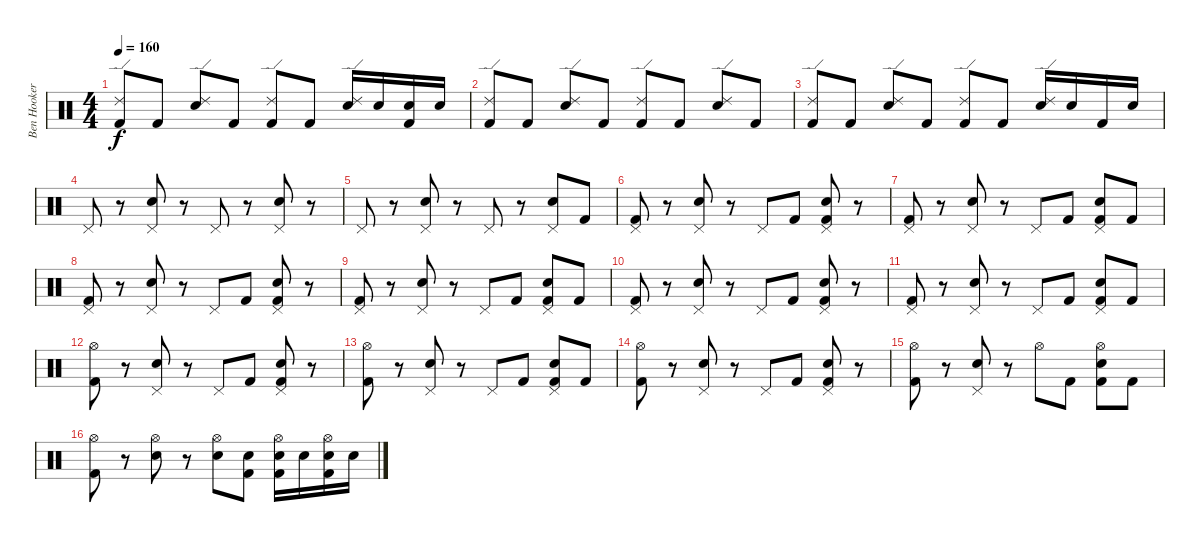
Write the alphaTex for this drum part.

\track ("Ben Hooker" "Ben Hooker") {instrument percussion}
\staff {score}
\articulation defaults
\ts (4 4)
\tempo 160
\clef neutral
\ks c
("Ride (edge) 2" "Kick (hit) 2").8{dy f} "Kick (hit) 2".8 ("Ride (edge) 2" "Snare (hit) 2").8 "Kick (hit) 2".8 ("Ride (edge) 2" "Kick (hit) 2").8 "Kick (hit) 2".8 ("Ride (edge) 2" "Snare (hit) 2").16 "Snare (hit) 2".16 ("Snare (hit) 2" "Kick (hit) 2").16 "Snare (hit) 2".16 |
("Ride (edge) 2" "Kick (hit) 2").8 "Kick (hit) 2".8 ("Ride (edge) 2" "Snare (hit) 2").8 "Kick (hit) 2".8 ("Ride (edge) 2" "Kick (hit) 2").8 "Kick (hit) 2".8 ("Ride (edge) 2" "Snare (hit) 2").8 "Kick (hit) 2".8 |
("Ride (edge) 2" "Kick (hit) 2").8 "Kick (hit) 2".8 ("Ride (edge) 2" "Snare (hit) 2").8 "Kick (hit) 2".8 ("Ride (edge) 2" "Kick (hit) 2").8 "Kick (hit) 2".8 ("Ride (edge) 2" "Snare (hit) 2").16 "Snare (hit) 2".16 "Kick (hit) 2".16 "Snare (hit) 2".16 |
"Pedal Hi-Hat (hit)".8 r.8 ("Pedal Hi-Hat (hit)" "Snare (hit) 2").8 r.8 "Pedal Hi-Hat (hit)".8 r.8 ("Pedal Hi-Hat (hit)" "Snare (hit) 2").8 r.8 |
"Pedal Hi-Hat (hit)".8 r.8 ("Pedal Hi-Hat (hit)" "Snare (hit) 2").8 r.8 "Pedal Hi-Hat (hit)".8 r.8 ("Pedal Hi-Hat (hit)" "Snare (hit) 2").8 "Kick (hit) 2".8 |
("Pedal Hi-Hat (hit)" "Kick (hit) 2").8 r.8 ("Pedal Hi-Hat (hit)" "Snare (hit) 2").8 r.8 "Pedal Hi-Hat (hit)".8 "Kick (hit) 2".8 ("Pedal Hi-Hat (hit)" "Snare (hit) 2" "Kick (hit) 2").8 r.8 |
("Pedal Hi-Hat (hit)" "Kick (hit) 2").8 r.8 ("Pedal Hi-Hat (hit)" "Snare (hit) 2").8 r.8 "Pedal Hi-Hat (hit)".8 "Kick (hit) 2".8 ("Pedal Hi-Hat (hit)" "Snare (hit) 2" "Kick (hit) 2").8 "Kick (hit) 2".8 |
("Pedal Hi-Hat (hit)" "Kick (hit) 2").8 r.8 ("Pedal Hi-Hat (hit)" "Snare (hit) 2").8 r.8 "Pedal Hi-Hat (hit)".8 "Kick (hit) 2".8 ("Pedal Hi-Hat (hit)" "Snare (hit) 2" "Kick (hit) 2").8 r.8 |
("Pedal Hi-Hat (hit)" "Kick (hit) 2").8 r.8 ("Pedal Hi-Hat (hit)" "Snare (hit) 2").8 r.8 "Pedal Hi-Hat (hit)".8 "Kick (hit) 2".8 ("Pedal Hi-Hat (hit)" "Snare (hit) 2" "Kick (hit) 2").8 "Kick (hit) 2".8 |
("Pedal Hi-Hat (hit)" "Kick (hit) 2").8 r.8 ("Pedal Hi-Hat (hit)" "Snare (hit) 2").8 r.8 "Pedal Hi-Hat (hit)".8 "Kick (hit) 2".8 ("Pedal Hi-Hat (hit)" "Snare (hit) 2" "Kick (hit) 2").8 r.8 |
("Pedal Hi-Hat (hit)" "Kick (hit) 2").8 r.8 ("Pedal Hi-Hat (hit)" "Snare (hit) 2").8 r.8 "Pedal Hi-Hat (hit)".8 "Kick (hit) 2".8 ("Pedal Hi-Hat (hit)" "Snare (hit) 2" "Kick (hit) 2").8 "Kick (hit) 2".8 |
("Hi-Hat (open)" "Kick (hit) 2").8 r.8 ("Pedal Hi-Hat (hit)" "Snare (hit) 2").8 r.8 "Pedal Hi-Hat (hit)".8 "Kick (hit) 2".8 ("Pedal Hi-Hat (hit)" "Snare (hit) 2" "Kick (hit) 2").8 r.8 |
("Hi-Hat (open)" "Kick (hit) 2").8 r.8 ("Pedal Hi-Hat (hit)" "Snare (hit) 2").8 r.8 "Pedal Hi-Hat (hit)".8 "Kick (hit) 2".8 ("Pedal Hi-Hat (hit)" "Snare (hit) 2" "Kick (hit) 2").8 "Kick (hit) 2".8 |
("Hi-Hat (open)" "Kick (hit) 2").8 r.8 ("Pedal Hi-Hat (hit)" "Snare (hit) 2").8 r.8 "Pedal Hi-Hat (hit)".8 "Kick (hit) 2".8 ("Pedal Hi-Hat (hit)" "Snare (hit) 2" "Kick (hit) 2").8 r.8 |
("Hi-Hat (open)" "Kick (hit) 2").8 r.8 ("Pedal Hi-Hat (hit)" "Snare (hit) 2").8 r.8 "Hi-Hat (open)".8 "Kick (hit) 2".8 ("Hi-Hat (open)" "Snare (hit) 2" "Kick (hit) 2").8 "Kick (hit) 2".8 |
("Hi-Hat (open)" "Kick (hit) 2").8 r.8 ("Hi-Hat (open)" "Snare (hit) 2").8 r.8 ("Hi-Hat (open)" "Snare (hit) 2").8 ("Snare (hit) 2" "Kick (hit) 2").8 ("Hi-Hat (open)" "Snare (hit) 2" "Kick (hit) 2").16 "Snare (hit) 2".16 ("Hi-Hat (open)" "Snare (hit) 2" "Kick (hit) 2").16 "Snare (hit) 2".16
